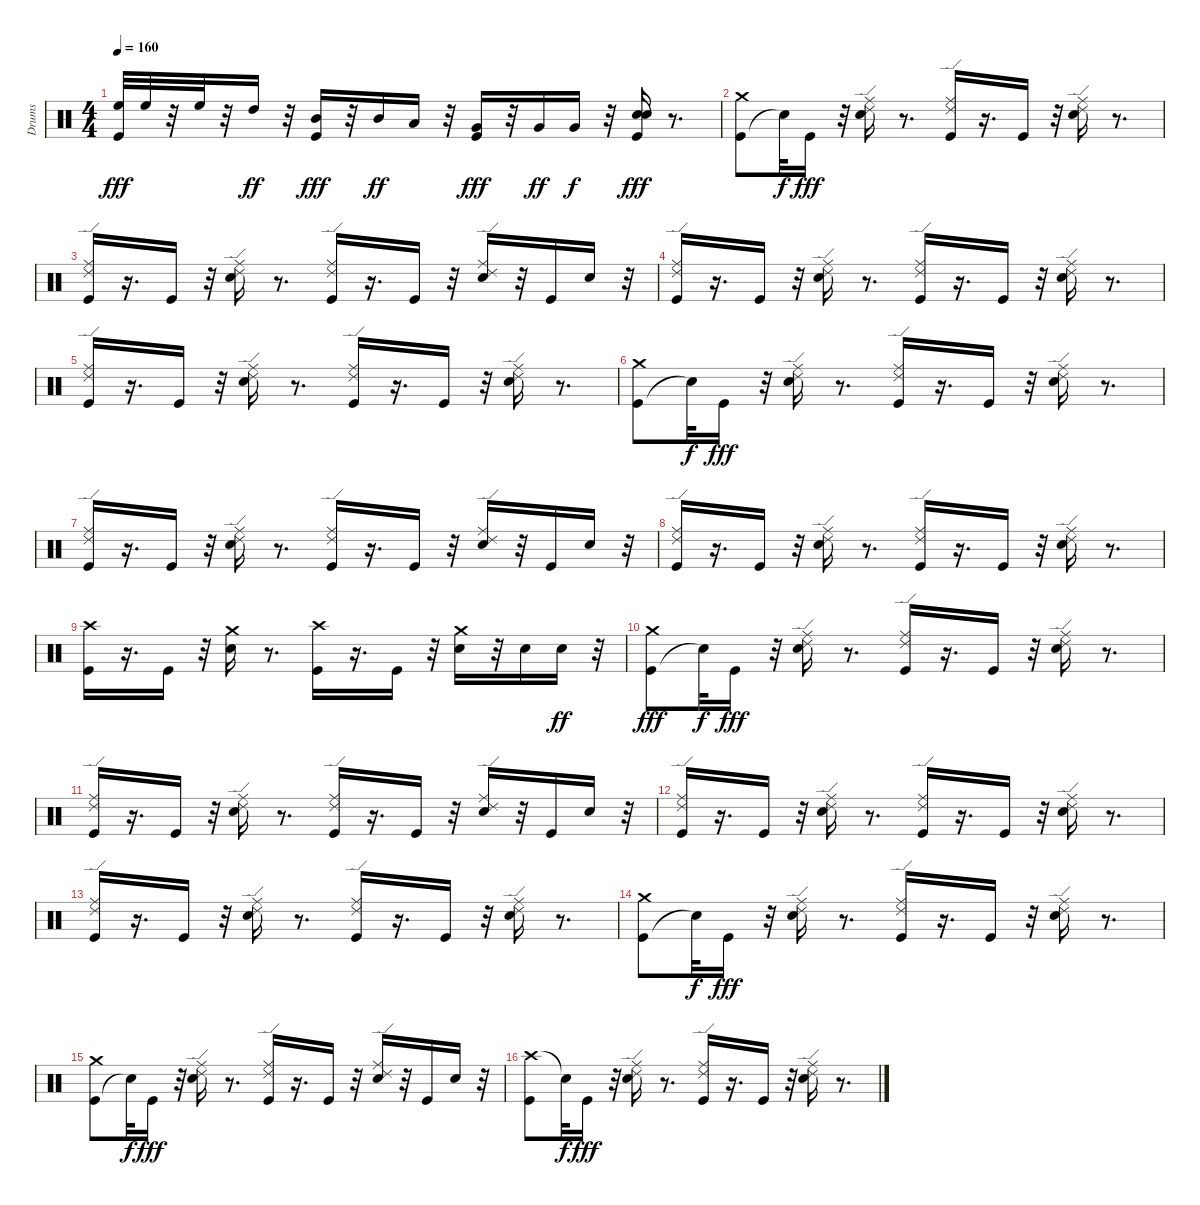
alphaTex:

\track ("Drums" "Drums") {instrument percussion}
\staff {score}
\articulation defaults
\ts (4 4)
\tempo 160
\clef neutral
\ks c
("High Floor Tom (hit)" "Kick (hit)").32{dy fff} "High Floor Tom (hit)".32 r.32 "High Floor Tom (hit)".32 r.32 "High Tom (hit)".16{dy ff} r.32 ("Kick (hit)" "Mid Tom (hit)").16{dy fff} r.32 "Mid Tom (hit)".16{dy ff} "Low Tom (hit)".16 r.32 ("Kick (hit)" "Very Low Tom (hit)").16{dy fff} r.32 "Very Low Tom (hit)".16{dy ff} "Very Low Tom (hit)".16{dy f} r.32 ("Kick (hit)" "Snare (hit) 2" "Electric Snare (hit)").16{dy fff} r.8{d} |
("Kick (hit)" "Crash medium (hit)").8 "Snare (hit)"{t}.32{dy f} "Kick (hit)".16{dy fff} r.32 ("Ride (middle)" "Ride (edge) 2" "Electric Snare (hit)").16 r.8{d} ("Ride (middle)" "Ride (edge) 2" "Kick (hit)").16 r.16{d} "Kick (hit)".16 r.32 ("Ride (middle)" "Ride (edge) 2" "Electric Snare (hit)").16 r.8{d} |
("Kick (hit)" "Ride (middle)" "Ride (edge) 2").16 r.16{d} "Kick (hit)".16 r.32 ("Electric Snare (hit)" "Ride (middle)" "Ride (edge) 2").16 r.8{d} ("Kick (hit)" "Ride (middle)" "Ride (edge) 2").16 r.16{d} "Kick (hit)".16 r.32 ("Electric Snare (hit)" "Ride (middle)" "Ride (edge) 2").16 r.32 "Kick (hit)".16 "Electric Snare (hit)".16 r.32 |
("Ride (middle)" "Ride (edge) 2" "Kick (hit)").16 r.16{d} "Kick (hit)".16 r.32 ("Ride (middle)" "Ride (edge) 2" "Electric Snare (hit)").16 r.8{d} ("Ride (middle)" "Ride (edge) 2" "Kick (hit)").16 r.16{d} "Kick (hit)".16 r.32 ("Ride (middle)" "Ride (edge) 2" "Electric Snare (hit)").16 r.8{d} |
("Kick (hit)" "Ride (middle)" "Ride (edge) 2").16 r.16{d} "Kick (hit)".16 r.32 ("Electric Snare (hit)" "Ride (middle)" "Ride (edge) 2").16 r.8{d} ("Kick (hit)" "Ride (middle)" "Ride (edge) 2").16 r.16{d} "Kick (hit)".16 r.32 ("Electric Snare (hit)" "Ride (middle)" "Ride (edge) 2").16 r.8{d} |
("Kick (hit)" "Crash medium (hit)").8 "Snare (hit)"{t}.32{dy f} "Kick (hit)".16{dy fff} r.32 ("Ride (middle)" "Ride (edge) 2" "Electric Snare (hit)").16 r.8{d} ("Ride (middle)" "Ride (edge) 2" "Kick (hit)").16 r.16{d} "Kick (hit)".16 r.32 ("Ride (middle)" "Ride (edge) 2" "Electric Snare (hit)").16 r.8{d} |
("Kick (hit)" "Ride (middle)" "Ride (edge) 2").16 r.16{d} "Kick (hit)".16 r.32 ("Electric Snare (hit)" "Ride (middle)" "Ride (edge) 2").16 r.8{d} ("Kick (hit)" "Ride (middle)" "Ride (edge) 2").16 r.16{d} "Kick (hit)".16 r.32 ("Electric Snare (hit)" "Ride (middle)" "Ride (edge) 2").16 r.32 "Kick (hit)".16 "Electric Snare (hit)".16 r.32 |
("Kick (hit)" "Ride (middle)" "Ride (edge) 2").16 r.16{d} "Kick (hit)".16 r.32 ("Electric Snare (hit)" "Ride (middle)" "Ride (edge) 2").16 r.8{d} ("Kick (hit)" "Ride (middle)" "Ride (edge) 2").16 r.16{d} "Kick (hit)".16 r.32 ("Electric Snare (hit)" "Ride (middle)" "Ride (edge) 2").16 r.8{d} |
("Crash high (hit)" "Kick (hit)").16 r.16{d} "Kick (hit)".16 r.32 ("Electric Snare (hit)" "Crash medium (hit)").16 r.8{d} ("Crash high (hit)" "Kick (hit)").16 r.16{d} "Kick (hit)".16 r.32 ("Crash medium (hit)" "Electric Snare (hit)").16 r.32 "Electric Snare (hit)".16 "Electric Snare (hit)".16{dy ff} r.32 |
("Kick (hit)" "Crash medium (hit)").8{dy fff} "Snare (hit)"{t}.32{dy f} "Kick (hit)".16{dy fff} r.32 ("Ride (middle)" "Ride (edge) 2" "Electric Snare (hit)").16 r.8{d} ("Ride (middle)" "Ride (edge) 2" "Kick (hit)").16 r.16{d} "Kick (hit)".16 r.32 ("Ride (middle)" "Ride (edge) 2" "Electric Snare (hit)").16 r.8{d} |
("Kick (hit)" "Ride (middle)" "Ride (edge) 2").16 r.16{d} "Kick (hit)".16 r.32 ("Electric Snare (hit)" "Ride (middle)" "Ride (edge) 2").16 r.8{d} ("Kick (hit)" "Ride (middle)" "Ride (edge) 2").16 r.16{d} "Kick (hit)".16 r.32 ("Electric Snare (hit)" "Ride (middle)" "Ride (edge) 2").16 r.32 "Kick (hit)".16 "Electric Snare (hit)".16 r.32 |
("Ride (middle)" "Ride (edge) 2" "Kick (hit)").16 r.16{d} "Kick (hit)".16 r.32 ("Ride (middle)" "Ride (edge) 2" "Electric Snare (hit)").16 r.8{d} ("Ride (middle)" "Ride (edge) 2" "Kick (hit)").16 r.16{d} "Kick (hit)".16 r.32 ("Ride (middle)" "Ride (edge) 2" "Electric Snare (hit)").16 r.8{d} |
("Kick (hit)" "Ride (middle)" "Ride (edge) 2").16 r.16{d} "Kick (hit)".16 r.32 ("Electric Snare (hit)" "Ride (middle)" "Ride (edge) 2").16 r.8{d} ("Kick (hit)" "Ride (middle)" "Ride (edge) 2").16 r.16{d} "Kick (hit)".16 r.32 ("Electric Snare (hit)" "Ride (middle)" "Ride (edge) 2").16 r.8{d} |
("Kick (hit)" "Crash medium (hit)").8 "Snare (hit)"{t}.32{dy f} "Kick (hit)".16{dy fff} r.32 ("Ride (middle)" "Ride (edge) 2" "Electric Snare (hit)").16 r.8{d} ("Ride (middle)" "Ride (edge) 2" "Kick (hit)").16 r.16{d} "Kick (hit)".16 r.32 ("Ride (middle)" "Ride (edge) 2" "Electric Snare (hit)").16 r.8{d} |
("Kick (hit)" "Crash medium (hit)").8 "Snare (hit)"{t}.32{dy f} "Kick (hit)".16{dy fff} r.32 ("Electric Snare (hit)" "Ride (middle)" "Ride (edge) 2").16 r.8{d} ("Kick (hit)" "Ride (middle)" "Ride (edge) 2").16 r.16{d} "Kick (hit)".16 r.32 ("Electric Snare (hit)" "Ride (middle)" "Ride (edge) 2").16 r.32 "Kick (hit)".16 "Electric Snare (hit)".16 r.32 |
("Crash high (hit)" "Kick (hit)").8 "Snare (hit)"{t}.32{dy f} "Kick (hit)".16{dy fff} r.32 ("Electric Snare (hit)" "Ride (middle)" "Ride (edge) 2").16 r.8{d} ("Kick (hit)" "Ride (middle)" "Ride (edge) 2").16 r.16{d} "Kick (hit)".16 r.32 ("Electric Snare (hit)" "Ride (middle)" "Ride (edge) 2").16 r.8{d}
